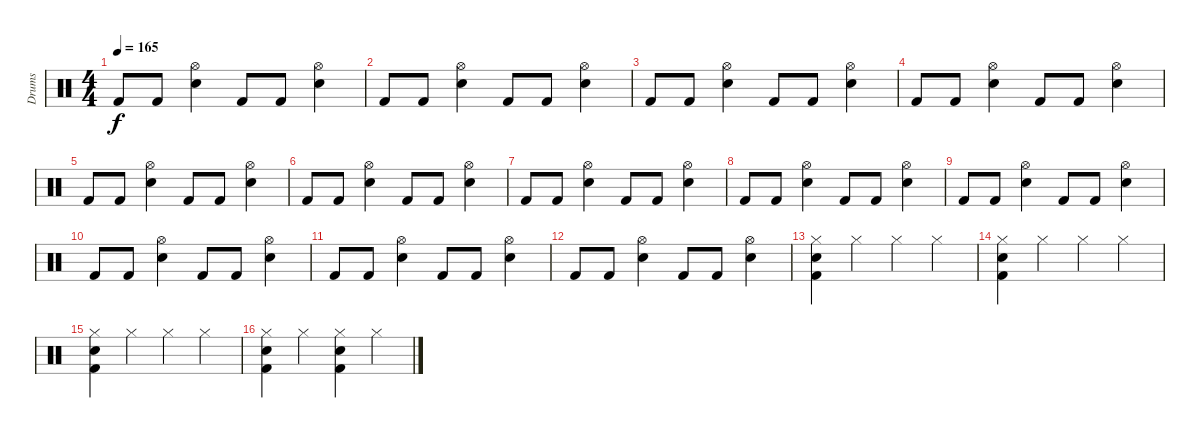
\track ("Drums" "Drums") {instrument percussion}
\staff {score}
\articulation defaults
\ts (4 4)
\tempo 165
\clef neutral
\ks c "Kick (hit) 2".8{dy f} "Kick (hit) 2".8
("Snare (hit) 2" "Hi-Hat (open)").4 "Kick (hit) 2".8 "Kick (hit) 2".8 ("Snare (hit) 2" "Hi-Hat (open)").4 |
"Kick (hit) 2".8 "Kick (hit) 2".8 ("Snare (hit) 2" "Hi-Hat (open)").4 "Kick (hit) 2".8 "Kick (hit) 2".8 ("Snare (hit) 2" "Hi-Hat (open)").4 |
"Kick (hit) 2".8 "Kick (hit) 2".8 ("Snare (hit) 2" "Hi-Hat (open)").4 "Kick (hit) 2".8 "Kick (hit) 2".8 ("Snare (hit) 2" "Hi-Hat (open)").4 |
"Kick (hit) 2".8 "Kick (hit) 2".8 ("Snare (hit) 2" "Hi-Hat (open)").4 "Kick (hit) 2".8 "Kick (hit) 2".8 ("Snare (hit) 2" "Hi-Hat (open)").4 |
"Kick (hit) 2".8 "Kick (hit) 2".8 ("Snare (hit) 2" "Hi-Hat (open)").4 "Kick (hit) 2".8 "Kick (hit) 2".8 ("Snare (hit) 2" "Hi-Hat (open)").4 |
"Kick (hit) 2".8 "Kick (hit) 2".8 ("Snare (hit) 2" "Hi-Hat (open)").4 "Kick (hit) 2".8 "Kick (hit) 2".8 ("Snare (hit) 2" "Hi-Hat (open)").4 |
"Kick (hit) 2".8 "Kick (hit) 2".8 ("Snare (hit) 2" "Hi-Hat (open)").4 "Kick (hit) 2".8 "Kick (hit) 2".8 ("Snare (hit) 2" "Hi-Hat (open)").4 |
"Kick (hit) 2".8 "Kick (hit) 2".8 ("Snare (hit) 2" "Hi-Hat (open)").4 "Kick (hit) 2".8 "Kick (hit) 2".8 ("Snare (hit) 2" "Hi-Hat (open)").4 |
"Kick (hit) 2".8 "Kick (hit) 2".8 ("Snare (hit) 2" "Hi-Hat (open)").4 "Kick (hit) 2".8 "Kick (hit) 2".8 ("Snare (hit) 2" "Hi-Hat (open)").4 |
"Kick (hit) 2".8 "Kick (hit) 2".8 ("Snare (hit) 2" "Hi-Hat (open)").4 "Kick (hit) 2".8 "Kick (hit) 2".8 ("Snare (hit) 2" "Hi-Hat (open)").4 |
"Kick (hit) 2".8 "Kick (hit) 2".8 ("Snare (hit) 2" "Hi-Hat (open)").4 "Kick (hit) 2".8 "Kick (hit) 2".8 ("Snare (hit) 2" "Hi-Hat (open)").4 |
"Kick (hit) 2".8 "Kick (hit) 2".8 ("Snare (hit) 2" "Hi-Hat (open)").4 "Kick (hit) 2".8 "Kick (hit) 2".8 ("Snare (hit) 2" "Hi-Hat (open)").4 |
("Kick (hit) 2" "Snare (hit) 2" "Hi-Hat (closed)").4 "Hi-Hat (closed)".4 "Hi-Hat (closed)".4 "Hi-Hat (closed)".4 |
("Kick (hit) 2" "Snare (hit) 2" "Hi-Hat (closed)").4 "Hi-Hat (closed)".4 "Hi-Hat (closed)".4 "Hi-Hat (closed)".4 |
("Kick (hit) 2" "Snare (hit) 2" "Hi-Hat (closed)").4 "Hi-Hat (closed)".4 "Hi-Hat (closed)".4 "Hi-Hat (closed)".4 |
("Kick (hit) 2" "Snare (hit) 2" "Hi-Hat (closed)").4 "Hi-Hat (closed)".4 ("Kick (hit) 2" "Snare (hit) 2" "Hi-Hat (closed)").4 "Hi-Hat (closed)".4
